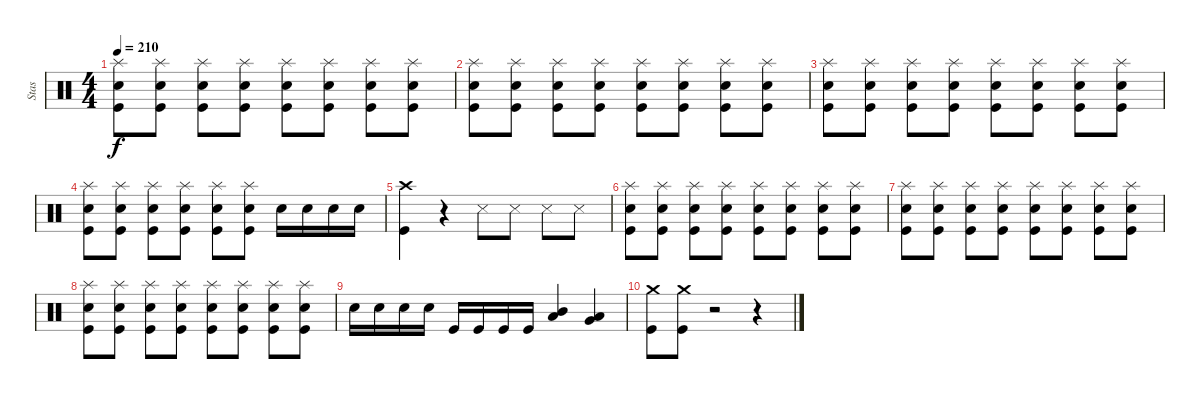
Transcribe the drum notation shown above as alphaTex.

\track ("Stas" "Stas") {instrument percussion}
\staff {score}
\articulation defaults
\ts (4 4)
\tempo 210
\clef neutral
\ks c
("Kick (hit)" "Electric Snare (hit)" "Splash (hit)").8{dy f} ("Kick (hit)" "Electric Snare (hit)" "Splash (hit)").8 ("Kick (hit)" "Electric Snare (hit)" "Splash (hit)").8 ("Kick (hit)" "Electric Snare (hit)" "Splash (hit)").8 ("Kick (hit)" "Electric Snare (hit)" "Splash (hit)").8 ("Kick (hit)" "Electric Snare (hit)" "Splash (hit)").8 ("Kick (hit)" "Electric Snare (hit)" "Splash (hit)").8 ("Kick (hit)" "Electric Snare (hit)" "Splash (hit)").8 |
("Kick (hit)" "Electric Snare (hit)" "Splash (hit)").8 ("Kick (hit)" "Electric Snare (hit)" "Splash (hit)").8 ("Kick (hit)" "Electric Snare (hit)" "Splash (hit)").8 ("Kick (hit)" "Electric Snare (hit)" "Splash (hit)").8 ("Kick (hit)" "Electric Snare (hit)" "Splash (hit)").8 ("Kick (hit)" "Electric Snare (hit)" "Splash (hit)").8 ("Kick (hit)" "Electric Snare (hit)" "Splash (hit)").8 ("Kick (hit)" "Electric Snare (hit)" "Splash (hit)").8 |
("Kick (hit)" "Electric Snare (hit)" "Splash (hit)").8 ("Kick (hit)" "Electric Snare (hit)" "Splash (hit)").8 ("Kick (hit)" "Electric Snare (hit)" "Splash (hit)").8 ("Kick (hit)" "Electric Snare (hit)" "Splash (hit)").8 ("Kick (hit)" "Electric Snare (hit)" "Splash (hit)").8 ("Kick (hit)" "Electric Snare (hit)" "Splash (hit)").8 ("Kick (hit)" "Electric Snare (hit)" "Splash (hit)").8 ("Kick (hit)" "Electric Snare (hit)" "Splash (hit)").8 |
("Kick (hit)" "Electric Snare (hit)" "Splash (hit)").8 ("Kick (hit)" "Electric Snare (hit)" "Splash (hit)").8 ("Kick (hit)" "Electric Snare (hit)" "Splash (hit)").8 ("Kick (hit)" "Electric Snare (hit)" "Splash (hit)").8 ("Kick (hit)" "Electric Snare (hit)" "Splash (hit)").8 ("Kick (hit)" "Electric Snare (hit)" "Splash (hit)").8 "Electric Snare (hit)".16 "Electric Snare (hit)".16 "Electric Snare (hit)".16 "Electric Snare (hit)".16 |
("Crash high (hit)" "Kick (hit)").4 r.4 "Metronome (hit)".8 "Metronome (hit)".8 "Metronome (hit)".8 "Metronome (hit)".8 |
("Kick (hit)" "Electric Snare (hit)" "Splash (hit)").8 ("Kick (hit)" "Electric Snare (hit)" "Splash (hit)").8 ("Kick (hit)" "Electric Snare (hit)" "Splash (hit)").8 ("Kick (hit)" "Electric Snare (hit)" "Splash (hit)").8 ("Kick (hit)" "Electric Snare (hit)" "Splash (hit)").8 ("Kick (hit)" "Electric Snare (hit)" "Splash (hit)").8 ("Kick (hit)" "Electric Snare (hit)" "Splash (hit)").8 ("Kick (hit)" "Electric Snare (hit)" "Splash (hit)").8 |
("Kick (hit)" "Electric Snare (hit)" "Splash (hit)").8 ("Kick (hit)" "Electric Snare (hit)" "Splash (hit)").8 ("Kick (hit)" "Electric Snare (hit)" "Splash (hit)").8 ("Kick (hit)" "Electric Snare (hit)" "Splash (hit)").8 ("Kick (hit)" "Electric Snare (hit)" "Splash (hit)").8 ("Kick (hit)" "Electric Snare (hit)" "Splash (hit)").8 ("Kick (hit)" "Electric Snare (hit)" "Splash (hit)").8 ("Kick (hit)" "Electric Snare (hit)" "Splash (hit)").8 |
("Kick (hit)" "Electric Snare (hit)" "Splash (hit)").8 ("Kick (hit)" "Electric Snare (hit)" "Splash (hit)").8 ("Kick (hit)" "Electric Snare (hit)" "Splash (hit)").8 ("Kick (hit)" "Electric Snare (hit)" "Splash (hit)").8 ("Kick (hit)" "Electric Snare (hit)" "Splash (hit)").8 ("Kick (hit)" "Electric Snare (hit)" "Splash (hit)").8 ("Kick (hit)" "Electric Snare (hit)" "Splash (hit)").8 ("Kick (hit)" "Electric Snare (hit)" "Splash (hit)").8 |
"Electric Snare (hit)".16 "Electric Snare (hit)".16 "Electric Snare (hit)".16 "Electric Snare (hit)".16 "Kick (hit)".16 "Kick (hit)".16 "Kick (hit)".16 "Kick (hit)".16 ("Low Tom (hit)" "Mid Tom (hit)").4 ("Very Low Tom (hit)" "Low Tom (hit)").4 |
("Crash medium (hit)" "Kick (hit)").8 ("Crash medium (hit)" "Kick (hit)").8 r.2 r.4
